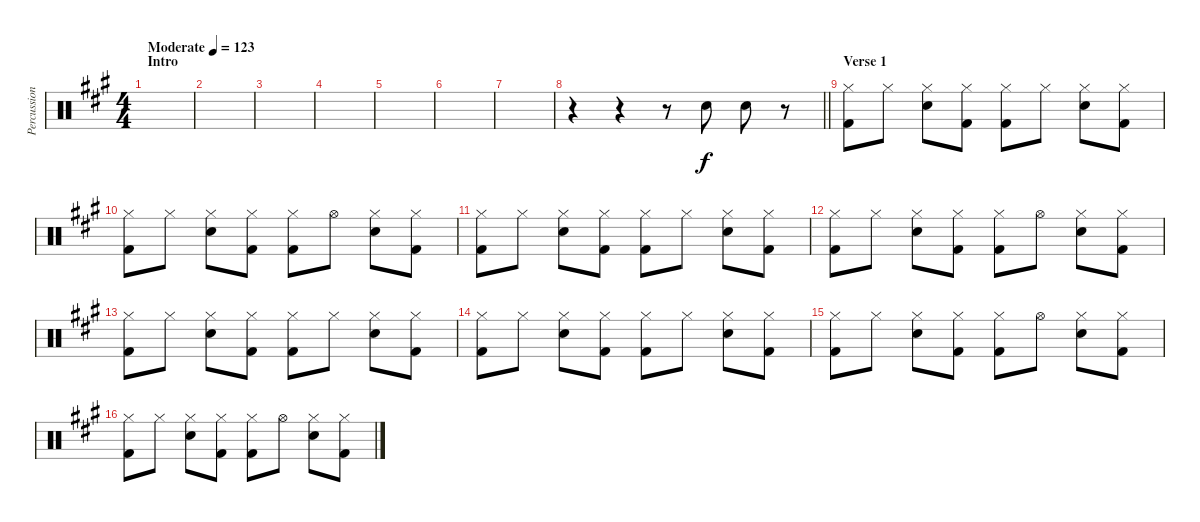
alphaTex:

\track ("Percussion" "Percussion") {instrument percussion}
\staff {score}
\articulation defaults
\ts (4 4)
\section ("" "Intro")
\tempo (123 "Moderate")
\clef neutral
\ks a
|
|
|
|
|
|
|
\barLineRight lightlight
r.4 r.4 r.8 "Electric Snare (hit)".8 "Electric Snare (hit)".8 r.8 |
\section ("" "Verse 1")
("Hi-Hat (closed)" "Kick (hit) 2").8 "Hi-Hat (closed)".8 ("Hi-Hat (closed)" "Electric Snare (hit)").8 ("Hi-Hat (closed)" "Kick (hit) 2").8 ("Hi-Hat (closed)" "Kick (hit) 2").8 "Hi-Hat (closed)".8 ("Hi-Hat (closed)" "Electric Snare (hit)").8 ("Hi-Hat (closed)" "Kick (hit) 2").8 |
("Hi-Hat (closed)" "Kick (hit) 2").8 "Hi-Hat (closed)".8 ("Hi-Hat (closed)" "Electric Snare (hit)").8 ("Hi-Hat (closed)" "Kick (hit) 2").8 ("Hi-Hat (closed)" "Kick (hit) 2").8 "Hi-Hat (open)".8 ("Hi-Hat (closed)" "Electric Snare (hit)").8 ("Hi-Hat (closed)" "Kick (hit) 2").8 |
("Hi-Hat (closed)" "Kick (hit) 2").8 "Hi-Hat (closed)".8 ("Hi-Hat (closed)" "Electric Snare (hit)").8 ("Hi-Hat (closed)" "Kick (hit) 2").8 ("Hi-Hat (closed)" "Kick (hit) 2").8 "Hi-Hat (closed)".8 ("Hi-Hat (closed)" "Electric Snare (hit)").8 ("Hi-Hat (closed)" "Kick (hit) 2").8 |
("Hi-Hat (closed)" "Kick (hit) 2").8 "Hi-Hat (closed)".8 ("Hi-Hat (closed)" "Electric Snare (hit)").8 ("Hi-Hat (closed)" "Kick (hit) 2").8 ("Hi-Hat (closed)" "Kick (hit) 2").8 "Hi-Hat (open)".8 ("Hi-Hat (closed)" "Electric Snare (hit)").8 ("Hi-Hat (closed)" "Kick (hit) 2").8 |
("Hi-Hat (closed)" "Kick (hit) 2").8 "Hi-Hat (closed)".8 ("Hi-Hat (closed)" "Electric Snare (hit)").8 ("Hi-Hat (closed)" "Kick (hit) 2").8 ("Hi-Hat (closed)" "Kick (hit) 2").8 "Hi-Hat (closed)".8 ("Hi-Hat (closed)" "Electric Snare (hit)").8 ("Hi-Hat (closed)" "Kick (hit) 2").8 |
("Hi-Hat (closed)" "Kick (hit) 2").8 "Hi-Hat (closed)".8 ("Hi-Hat (closed)" "Electric Snare (hit)").8 ("Hi-Hat (closed)" "Kick (hit) 2").8 ("Hi-Hat (closed)" "Kick (hit) 2").8 "Hi-Hat (closed)".8 ("Hi-Hat (closed)" "Electric Snare (hit)").8 ("Hi-Hat (closed)" "Kick (hit) 2").8 |
("Hi-Hat (closed)" "Kick (hit) 2").8 "Hi-Hat (closed)".8 ("Hi-Hat (closed)" "Electric Snare (hit)").8 ("Hi-Hat (closed)" "Kick (hit) 2").8 ("Hi-Hat (closed)" "Kick (hit) 2").8 "Hi-Hat (open)".8 ("Hi-Hat (closed)" "Electric Snare (hit)").8 ("Hi-Hat (closed)" "Kick (hit) 2").8 |
("Hi-Hat (closed)" "Kick (hit) 2").8 "Hi-Hat (closed)".8 ("Hi-Hat (closed)" "Electric Snare (hit)").8 ("Hi-Hat (closed)" "Kick (hit) 2").8 ("Hi-Hat (closed)" "Kick (hit) 2").8 "Hi-Hat (open)".8 ("Hi-Hat (closed)" "Electric Snare (hit)").8 ("Hi-Hat (closed)" "Kick (hit) 2").8
